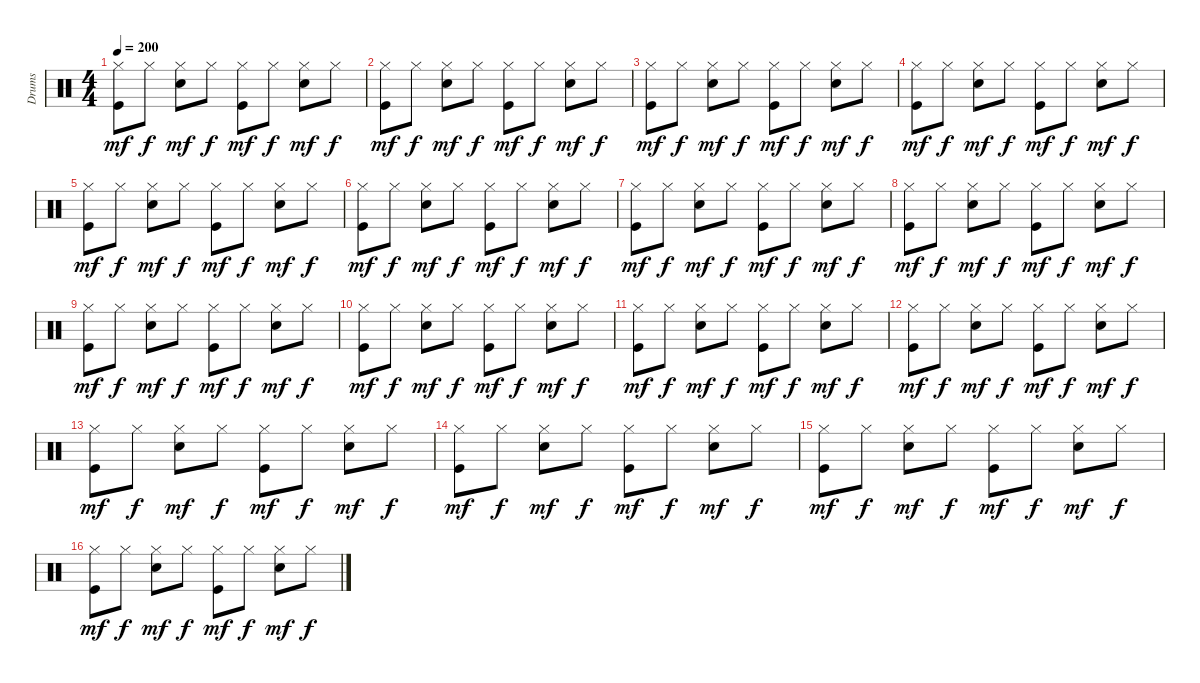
\track ("Drums" "Drums") {instrument percussion}
\staff {score}
\articulation defaults
\ts (4 4)
\tempo 200
\clef neutral
\ks c
("Hi-Hat (closed)" "Kick (hit)").8{dy mf} "Hi-Hat (closed)".8{dy f} ("Hi-Hat (closed)" "Electric Snare (hit)").8{dy mf} "Hi-Hat (closed)".8{dy f} ("Hi-Hat (closed)" "Kick (hit)").8{dy mf} "Hi-Hat (closed)".8{dy f} ("Hi-Hat (closed)" "Electric Snare (hit)").8{dy mf} "Hi-Hat (closed)".8{dy f} |
("Hi-Hat (closed)" "Kick (hit)").8{dy mf} "Hi-Hat (closed)".8{dy f} ("Hi-Hat (closed)" "Electric Snare (hit)").8{dy mf} "Hi-Hat (closed)".8{dy f} ("Hi-Hat (closed)" "Kick (hit)").8{dy mf} "Hi-Hat (closed)".8{dy f} ("Hi-Hat (closed)" "Electric Snare (hit)").8{dy mf} "Hi-Hat (closed)".8{dy f} |
("Hi-Hat (closed)" "Kick (hit)").8{dy mf} "Hi-Hat (closed)".8{dy f} ("Hi-Hat (closed)" "Electric Snare (hit)").8{dy mf} "Hi-Hat (closed)".8{dy f} ("Hi-Hat (closed)" "Kick (hit)").8{dy mf} "Hi-Hat (closed)".8{dy f} ("Hi-Hat (closed)" "Electric Snare (hit)").8{dy mf} "Hi-Hat (closed)".8{dy f} |
("Hi-Hat (closed)" "Kick (hit)").8{dy mf} "Hi-Hat (closed)".8{dy f} ("Hi-Hat (closed)" "Electric Snare (hit)").8{dy mf} "Hi-Hat (closed)".8{dy f} ("Hi-Hat (closed)" "Kick (hit)").8{dy mf} "Hi-Hat (closed)".8{dy f} ("Hi-Hat (closed)" "Electric Snare (hit)").8{dy mf} "Hi-Hat (closed)".8{dy f} |
("Hi-Hat (closed)" "Kick (hit)").8{dy mf} "Hi-Hat (closed)".8{dy f} ("Hi-Hat (closed)" "Electric Snare (hit)").8{dy mf} "Hi-Hat (closed)".8{dy f} ("Hi-Hat (closed)" "Kick (hit)").8{dy mf} "Hi-Hat (closed)".8{dy f} ("Hi-Hat (closed)" "Electric Snare (hit)").8{dy mf} "Hi-Hat (closed)".8{dy f} |
("Hi-Hat (closed)" "Kick (hit)").8{dy mf} "Hi-Hat (closed)".8{dy f} ("Hi-Hat (closed)" "Electric Snare (hit)").8{dy mf} "Hi-Hat (closed)".8{dy f} ("Hi-Hat (closed)" "Kick (hit)").8{dy mf} "Hi-Hat (closed)".8{dy f} ("Hi-Hat (closed)" "Electric Snare (hit)").8{dy mf} "Hi-Hat (closed)".8{dy f} |
("Hi-Hat (closed)" "Kick (hit)").8{dy mf} "Hi-Hat (closed)".8{dy f} ("Hi-Hat (closed)" "Electric Snare (hit)").8{dy mf} "Hi-Hat (closed)".8{dy f} ("Hi-Hat (closed)" "Kick (hit)").8{dy mf} "Hi-Hat (closed)".8{dy f} ("Hi-Hat (closed)" "Electric Snare (hit)").8{dy mf} "Hi-Hat (closed)".8{dy f} |
("Hi-Hat (closed)" "Kick (hit)").8{dy mf} "Hi-Hat (closed)".8{dy f} ("Hi-Hat (closed)" "Electric Snare (hit)").8{dy mf} "Hi-Hat (closed)".8{dy f} ("Hi-Hat (closed)" "Kick (hit)").8{dy mf} "Hi-Hat (closed)".8{dy f} ("Hi-Hat (closed)" "Electric Snare (hit)").8{dy mf} "Hi-Hat (closed)".8{dy f} |
("Hi-Hat (closed)" "Kick (hit)").8{dy mf} "Hi-Hat (closed)".8{dy f} ("Hi-Hat (closed)" "Electric Snare (hit)").8{dy mf} "Hi-Hat (closed)".8{dy f} ("Hi-Hat (closed)" "Kick (hit)").8{dy mf} "Hi-Hat (closed)".8{dy f} ("Hi-Hat (closed)" "Electric Snare (hit)").8{dy mf} "Hi-Hat (closed)".8{dy f} |
("Hi-Hat (closed)" "Kick (hit)").8{dy mf} "Hi-Hat (closed)".8{dy f} ("Hi-Hat (closed)" "Electric Snare (hit)").8{dy mf} "Hi-Hat (closed)".8{dy f} ("Hi-Hat (closed)" "Kick (hit)").8{dy mf} "Hi-Hat (closed)".8{dy f} ("Hi-Hat (closed)" "Electric Snare (hit)").8{dy mf} "Hi-Hat (closed)".8{dy f} |
("Hi-Hat (closed)" "Kick (hit)").8{dy mf} "Hi-Hat (closed)".8{dy f} ("Hi-Hat (closed)" "Electric Snare (hit)").8{dy mf} "Hi-Hat (closed)".8{dy f} ("Hi-Hat (closed)" "Kick (hit)").8{dy mf} "Hi-Hat (closed)".8{dy f} ("Hi-Hat (closed)" "Electric Snare (hit)").8{dy mf} "Hi-Hat (closed)".8{dy f} |
("Hi-Hat (closed)" "Kick (hit)").8{dy mf} "Hi-Hat (closed)".8{dy f} ("Hi-Hat (closed)" "Electric Snare (hit)").8{dy mf} "Hi-Hat (closed)".8{dy f} ("Hi-Hat (closed)" "Kick (hit)").8{dy mf} "Hi-Hat (closed)".8{dy f} ("Hi-Hat (closed)" "Electric Snare (hit)").8{dy mf} "Hi-Hat (closed)".8{dy f} |
("Hi-Hat (closed)" "Kick (hit)").8{dy mf} "Hi-Hat (closed)".8{dy f} ("Hi-Hat (closed)" "Electric Snare (hit)").8{dy mf} "Hi-Hat (closed)".8{dy f} ("Hi-Hat (closed)" "Kick (hit)").8{dy mf} "Hi-Hat (closed)".8{dy f} ("Hi-Hat (closed)" "Electric Snare (hit)").8{dy mf} "Hi-Hat (closed)".8{dy f} |
("Hi-Hat (closed)" "Kick (hit)").8{dy mf} "Hi-Hat (closed)".8{dy f} ("Hi-Hat (closed)" "Electric Snare (hit)").8{dy mf} "Hi-Hat (closed)".8{dy f} ("Hi-Hat (closed)" "Kick (hit)").8{dy mf} "Hi-Hat (closed)".8{dy f} ("Hi-Hat (closed)" "Electric Snare (hit)").8{dy mf} "Hi-Hat (closed)".8{dy f} |
("Hi-Hat (closed)" "Kick (hit)").8{dy mf} "Hi-Hat (closed)".8{dy f} ("Hi-Hat (closed)" "Electric Snare (hit)").8{dy mf} "Hi-Hat (closed)".8{dy f} ("Hi-Hat (closed)" "Kick (hit)").8{dy mf} "Hi-Hat (closed)".8{dy f} ("Hi-Hat (closed)" "Electric Snare (hit)").8{dy mf} "Hi-Hat (closed)".8{dy f} |
("Hi-Hat (closed)" "Kick (hit)").8{dy mf} "Hi-Hat (closed)".8{dy f} ("Hi-Hat (closed)" "Electric Snare (hit)").8{dy mf} "Hi-Hat (closed)".8{dy f} ("Hi-Hat (closed)" "Kick (hit)").8{dy mf} "Hi-Hat (closed)".8{dy f} ("Hi-Hat (closed)" "Electric Snare (hit)").8{dy mf} "Hi-Hat (closed)".8{dy f}
